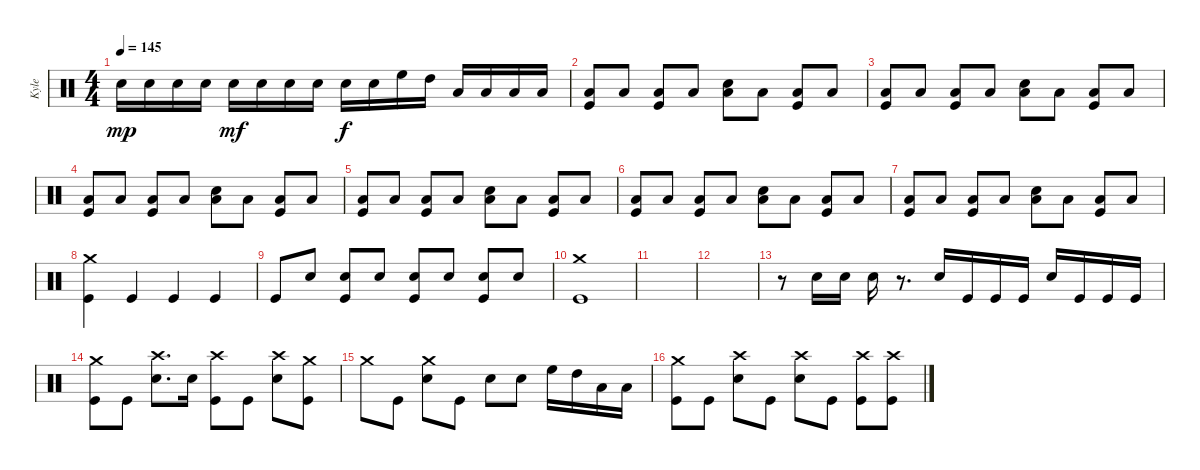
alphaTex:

\track ("Kyle" "Kyle") {instrument percussion}
\staff {score}
\articulation defaults
\ts (4 4)
\tempo 145
\clef neutral
\ks c "Electric Snare (hit)".16{dy mp} "Electric Snare (hit)".16 "Electric Snare (hit)".16 "Electric Snare (hit)".16 "Electric Snare (hit)".16{dy mf} "Electric Snare (hit)".16 "Electric Snare (hit)".16 "Electric Snare (hit)".16 "Electric Snare (hit)".16{dy f} "Electric Snare (hit)".16 "High Floor Tom (hit)".16 "High Tom (hit)".16 "Low Tom (hit)".16 "Low Floor Tom (hit)".16 "Low Floor Tom (hit)".16 "Low Floor Tom (hit)".16
|
("Low Floor Tom (hit)" "Kick (hit)").8 "Low Floor Tom (hit)".8 ("Low Floor Tom (hit)" "Kick (hit)").8 "Low Floor Tom (hit)".8 ("Low Floor Tom (hit)" "Electric Snare (hit)").8 "Low Floor Tom (hit)".8 ("Low Floor Tom (hit)" "Kick (hit)").8 "Low Floor Tom (hit)".8 |
("Low Floor Tom (hit)" "Kick (hit)").8 "Low Floor Tom (hit)".8 ("Low Floor Tom (hit)" "Kick (hit)").8 "Low Floor Tom (hit)".8 ("Low Floor Tom (hit)" "Electric Snare (hit)").8 "Low Floor Tom (hit)".8 ("Low Floor Tom (hit)" "Kick (hit)").8 "Low Floor Tom (hit)".8 |
("Low Floor Tom (hit)" "Kick (hit)").8 "Low Floor Tom (hit)".8 ("Low Floor Tom (hit)" "Kick (hit)").8 "Low Floor Tom (hit)".8 ("Low Floor Tom (hit)" "Electric Snare (hit)").8 "Low Floor Tom (hit)".8 ("Low Floor Tom (hit)" "Kick (hit)").8 "Low Floor Tom (hit)".8 |
("Low Floor Tom (hit)" "Kick (hit)").8 "Low Floor Tom (hit)".8 ("Low Floor Tom (hit)" "Kick (hit)").8 "Low Floor Tom (hit)".8 ("Low Floor Tom (hit)" "Electric Snare (hit)").8 "Low Floor Tom (hit)".8 ("Low Floor Tom (hit)" "Kick (hit)").8 "Low Floor Tom (hit)".8 |
("Low Floor Tom (hit)" "Kick (hit)").8 "Low Floor Tom (hit)".8 ("Low Floor Tom (hit)" "Kick (hit)").8 "Low Floor Tom (hit)".8 ("Low Floor Tom (hit)" "Electric Snare (hit)").8 "Low Floor Tom (hit)".8 ("Low Floor Tom (hit)" "Kick (hit)").8 "Low Floor Tom (hit)".8 |
("Low Floor Tom (hit)" "Kick (hit)").8 "Low Floor Tom (hit)".8 ("Low Floor Tom (hit)" "Kick (hit)").8 "Low Floor Tom (hit)".8 ("Low Floor Tom (hit)" "Electric Snare (hit)").8 "Low Floor Tom (hit)".8 ("Low Floor Tom (hit)" "Kick (hit)").8 "Low Floor Tom (hit)".8 |
("Crash medium (hit)" "Kick (hit)").4 "Kick (hit)".4 "Kick (hit)".4 "Kick (hit)".4 |
"Kick (hit)".8 "Electric Snare (hit)".8 ("Electric Snare (hit)" "Kick (hit)").8 "Electric Snare (hit)".8 ("Electric Snare (hit)" "Kick (hit)").8 "Electric Snare (hit)".8 ("Electric Snare (hit)" "Kick (hit)").8 "Electric Snare (hit)".8 |
("Crash medium (hit)" "Kick (hit)").1 |
|
|
r.8 "Electric Snare (hit)".16 "Electric Snare (hit)".16 "Electric Snare (hit)".16 r.8{d} "Electric Snare (hit)".16 "Kick (hit)".16 "Kick (hit)".16 "Kick (hit)".16 "Electric Snare (hit)".16 "Kick (hit)".16 "Kick (hit)".16 "Kick (hit)".16 |
("Crash medium (hit)" "Kick (hit)").8 "Kick (hit)".8 ("Crash high (hit)" "Electric Snare (hit)").8{d} "Electric Snare (hit)".16 ("Crash high (hit)" "Kick (hit)").8 "Kick (hit)".8 ("Crash high (hit)" "Electric Snare (hit)").8 ("Crash medium (hit)" "Kick (hit)").8 |
"Crash medium (hit)".8 "Kick (hit)".8 ("Crash medium (hit)" "Electric Snare (hit)").8 "Kick (hit)".8 "Electric Snare (hit)".8 "Electric Snare (hit)".8 "High Floor Tom (hit)".16 "High Tom (hit)".16 "Low Tom (hit)".16 "Low Floor Tom (hit)".16 |
("Crash medium (hit)" "Kick (hit)").8 "Kick (hit)".8 ("Crash high (hit)" "Electric Snare (hit)").8 "Kick (hit)".8 ("Crash high (hit)" "Electric Snare (hit)").8 "Kick (hit)".8 ("Crash high (hit)" "Kick (hit)").8 ("Crash high (hit)" "Kick (hit)").8
